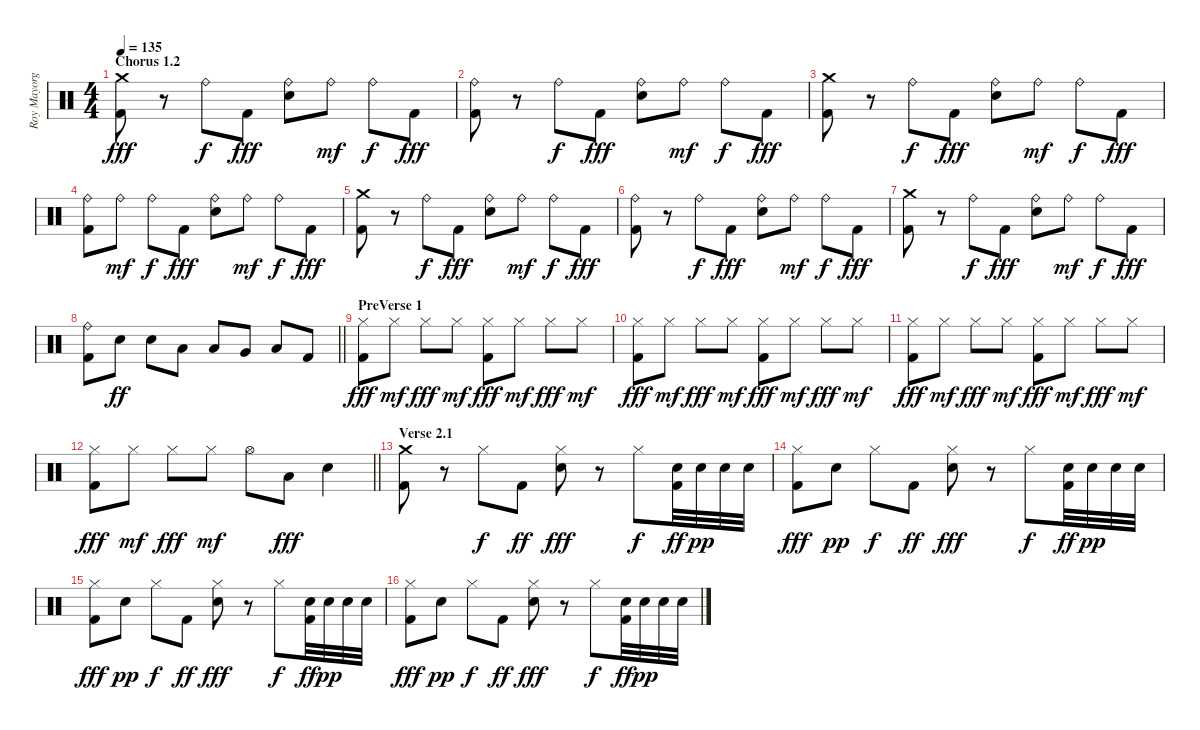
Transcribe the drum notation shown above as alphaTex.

\track ("Roy Mayorga" "Roy Mayorg") {instrument percussion}
\staff {score}
\articulation defaults
\ts (4 4)
\section ("" "Chorus 1.2")
\tempo 135
\clef neutral
\ks c
("Crash medium (hit)" "Kick (hit) 2").8{dy fff} r.8 "Ride (bell)".8{dy f} "Kick (hit) 2".8{dy fff} ("Ride (bell)" "Electric Snare (hit)").8 "Ride (bell)".8{dy mf} "Ride (bell)".8{dy f} "Kick (hit) 2".8{dy fff} |
("Ride (bell)" "Kick (hit) 2").8 r.8 "Ride (bell)".8{dy f} "Kick (hit) 2".8{dy fff} ("Ride (bell)" "Electric Snare (hit)").8 "Ride (bell)".8{dy mf} "Ride (bell)".8{dy f} "Kick (hit) 2".8{dy fff} |
("Crash medium (hit)" "Kick (hit) 2").8 r.8 "Ride (bell)".8{dy f} "Kick (hit) 2".8{dy fff} ("Ride (bell)" "Electric Snare (hit)").8 "Ride (bell)".8{dy mf} "Ride (bell)".8{dy f} "Kick (hit) 2".8{dy fff} |
("Ride (bell)" "Kick (hit) 2").8 "Ride (bell)".8{dy mf} "Ride (bell)".8{dy f} "Kick (hit) 2".8{dy fff} ("Ride (bell)" "Electric Snare (hit)").8 "Ride (bell)".8{dy mf} "Ride (bell)".8{dy f} "Kick (hit) 2".8{dy fff} |
("Crash medium (hit)" "Kick (hit) 2").8 r.8 "Ride (bell)".8{dy f} "Kick (hit) 2".8{dy fff} ("Ride (bell)" "Electric Snare (hit)").8 "Ride (bell)".8{dy mf} "Ride (bell)".8{dy f} "Kick (hit) 2".8{dy fff} |
("Ride (bell)" "Kick (hit) 2").8 r.8 "Ride (bell)".8{dy f} "Kick (hit) 2".8{dy fff} ("Ride (bell)" "Electric Snare (hit)").8 "Ride (bell)".8{dy mf} "Ride (bell)".8{dy f} "Kick (hit) 2".8{dy fff} |
("Crash medium (hit)" "Kick (hit) 2").8 r.8 "Ride (bell)".8{dy f} "Kick (hit) 2".8{dy fff} ("Ride (bell)" "Electric Snare (hit)").8 "Ride (bell)".8{dy mf} "Ride (bell)".8{dy f} "Kick (hit) 2".8{dy fff} |
\barLineRight lightlight
("Ride (bell)" "Kick (hit) 2").8 "Electric Snare (hit)".8{dy ff} "Electric Snare (hit)".8 "Low Tom (hit)".8 "Low Tom (hit)".8 "Very Low Tom (hit)".8 "Low Floor Tom (hit)".8 "Kick (hit) 2".8 |
\section ("" "PreVerse 1")
("Hi-Hat (closed)" "Kick (hit) 2").8{dy fff} "Hi-Hat (closed)".8{dy mf} "Hi-Hat (closed)".8{dy fff} "Hi-Hat (closed)".8{dy mf} ("Hi-Hat (closed)" "Kick (hit) 2").8{dy fff} "Hi-Hat (closed)".8{dy mf} "Hi-Hat (closed)".8{dy fff} "Hi-Hat (closed)".8{dy mf} |
("Hi-Hat (closed)" "Kick (hit) 2").8{dy fff} "Hi-Hat (closed)".8{dy mf} "Hi-Hat (closed)".8{dy fff} "Hi-Hat (closed)".8{dy mf} ("Hi-Hat (closed)" "Kick (hit) 2").8{dy fff} "Hi-Hat (closed)".8{dy mf} "Hi-Hat (closed)".8{dy fff} "Hi-Hat (closed)".8{dy mf} |
("Hi-Hat (closed)" "Kick (hit) 2").8{dy fff} "Hi-Hat (closed)".8{dy mf} "Hi-Hat (closed)".8{dy fff} "Hi-Hat (closed)".8{dy mf} ("Hi-Hat (closed)" "Kick (hit) 2").8{dy fff} "Hi-Hat (closed)".8{dy mf} "Hi-Hat (closed)".8{dy fff} "Hi-Hat (closed)".8{dy mf} |
\barLineRight lightlight
("Hi-Hat (closed)" "Kick (hit) 2").8{dy fff} "Hi-Hat (closed)".8{dy mf} "Hi-Hat (closed)".8{dy fff} "Hi-Hat (closed)".8{dy mf} "Hi-Hat (open)".8 "Low Tom (hit)".8{dy fff} "Electric Snare (hit)".4 |
\section ("" "Verse 2.1")
("Crash medium (hit)" "Kick (hit) 2").8 r.8 "Hi-Hat (closed)".8{dy f} "Kick (hit) 2".8{dy ff} ("Hi-Hat (closed)" "Electric Snare (hit)").8{dy fff} r.8 "Hi-Hat (closed)".8{dy f} ("Electric Snare (hit)" "Kick (hit) 2").32{dy ff} "Electric Snare (hit)".32{dy pp} "Electric Snare (hit)".32 "Electric Snare (hit)".32 |
("Hi-Hat (closed)" "Kick (hit) 2").8{dy fff} "Electric Snare (hit)".8{dy pp} "Hi-Hat (closed)".8{dy f} "Kick (hit) 2".8{dy ff} ("Hi-Hat (closed)" "Electric Snare (hit)").8{dy fff} r.8 "Hi-Hat (closed)".8{dy f} ("Electric Snare (hit)" "Kick (hit) 2").32{dy ff} "Electric Snare (hit)".32{dy pp} "Electric Snare (hit)".32 "Electric Snare (hit)".32 |
("Hi-Hat (closed)" "Kick (hit) 2").8{dy fff} "Electric Snare (hit)".8{dy pp} "Hi-Hat (closed)".8{dy f} "Kick (hit) 2".8{dy ff} ("Hi-Hat (closed)" "Electric Snare (hit)").8{dy fff} r.8 "Hi-Hat (closed)".8{dy f} ("Electric Snare (hit)" "Kick (hit) 2").32{dy ff} "Electric Snare (hit)".32{dy pp} "Electric Snare (hit)".32 "Electric Snare (hit)".32 |
("Hi-Hat (closed)" "Kick (hit) 2").8{dy fff} "Electric Snare (hit)".8{dy pp} "Hi-Hat (closed)".8{dy f} "Kick (hit) 2".8{dy ff} ("Hi-Hat (closed)" "Electric Snare (hit)").8{dy fff} r.8 "Hi-Hat (closed)".8{dy f} ("Electric Snare (hit)" "Kick (hit) 2").32{dy ff} "Electric Snare (hit)".32{dy pp} "Electric Snare (hit)".32 "Electric Snare (hit)".32
